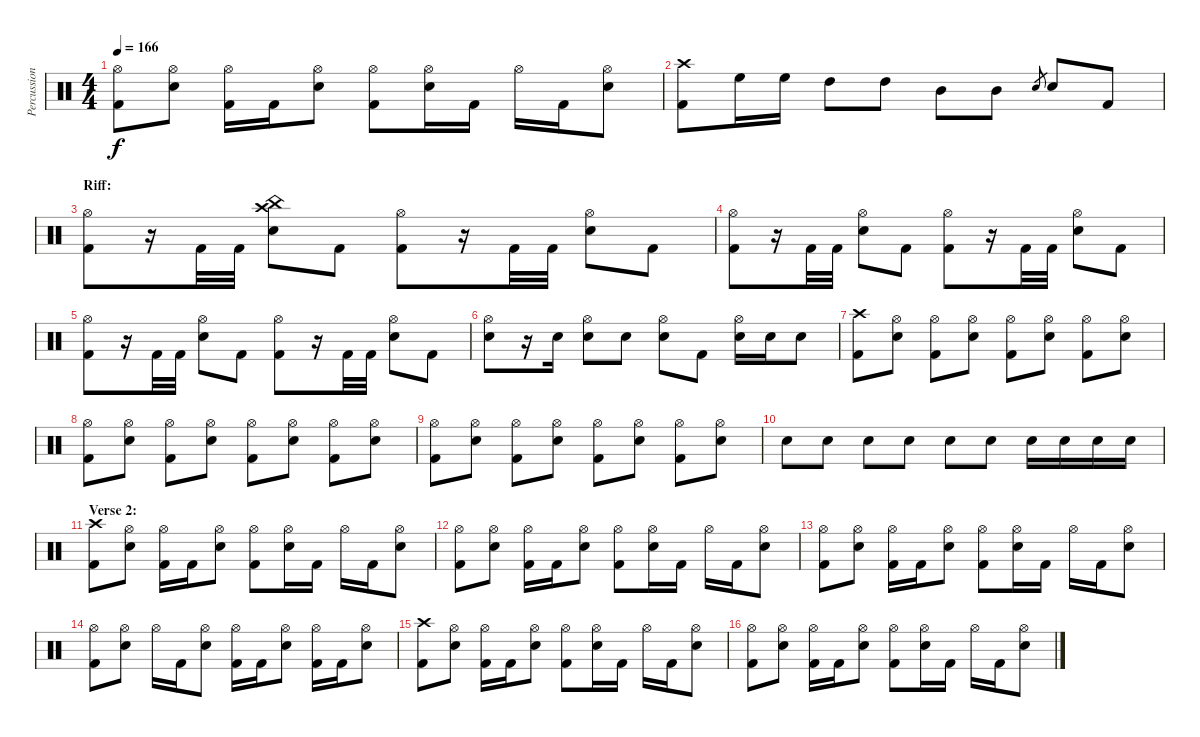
\track ("Percussion" "Percussion") {instrument percussion}
\staff {score}
\articulation defaults
\ts (4 4)
\tempo 166
\clef neutral
\ks c
("Hi-Hat (open)" "Kick (hit) 2").8{dy f} ("Hi-Hat (open)" "Electric Snare (hit)").8 ("Hi-Hat (open)" "Kick (hit) 2").16 "Kick (hit) 2".16 ("Hi-Hat (open)" "Electric Snare (hit)").8 ("Hi-Hat (open)" "Kick (hit) 2").8 ("Hi-Hat (open)" "Electric Snare (hit)").16 "Kick (hit) 2".16 "Hi-Hat (open)".16 "Kick (hit) 2".16 ("Hi-Hat (open)" "Electric Snare (hit)").8 |
("Crash high (hit)" "Kick (hit) 2").8 "High Floor Tom (hit)".16 "High Floor Tom (hit)".16 "High Tom (hit)".8 "High Tom (hit)".8 "Mid Tom (hit)".8 "Mid Tom (hit)".8 "Electric Snare (hit)".8{gr} "Electric Snare (hit)".8 "Kick (hit) 2".8 |
\section ("" "Riff:")
("Hi-Hat (open)" "Kick (hit) 2").8 r.16 "Kick (hit) 2".32 "Kick (hit) 2".32 ("China (hit)" "Crash high (hit)" "Electric Snare (hit)").8 "Kick (hit) 2".8 ("Hi-Hat (open)" "Kick (hit) 2").8 r.16 "Kick (hit) 2".32 "Kick (hit) 2".32 ("Hi-Hat (open)" "Electric Snare (hit)").8 "Kick (hit) 2".8 |
("Hi-Hat (open)" "Kick (hit) 2").8 r.16 "Kick (hit) 2".32 "Kick (hit) 2".32 ("Hi-Hat (open)" "Electric Snare (hit)").8 "Kick (hit) 2".8 ("Hi-Hat (open)" "Kick (hit) 2").8 r.16 "Kick (hit) 2".32 "Kick (hit) 2".32 ("Hi-Hat (open)" "Electric Snare (hit)").8 "Kick (hit) 2".8 |
("Hi-Hat (open)" "Kick (hit) 2").8 r.16 "Kick (hit) 2".32 "Kick (hit) 2".32 ("Hi-Hat (open)" "Electric Snare (hit)").8 "Kick (hit) 2".8 ("Hi-Hat (open)" "Kick (hit) 2").8 r.16 "Kick (hit) 2".32 "Kick (hit) 2".32 ("Hi-Hat (open)" "Electric Snare (hit)").8 "Kick (hit) 2".8 |
("Hi-Hat (open)" "Electric Snare (hit)").8 r.16 "Electric Snare (hit)".16 ("Hi-Hat (open)" "Electric Snare (hit)").8 "Electric Snare (hit)".8 ("Hi-Hat (open)" "Electric Snare (hit)").8 "Kick (hit) 2".8 ("Hi-Hat (open)" "Electric Snare (hit)").16 "Electric Snare (hit)".16 "Electric Snare (hit)".8 |
("Crash high (hit)" "Kick (hit) 2").8 ("Hi-Hat (open)" "Electric Snare (hit)").8 ("Hi-Hat (open)" "Kick (hit) 2").8 ("Hi-Hat (open)" "Electric Snare (hit)").8 ("Hi-Hat (open)" "Kick (hit) 2").8 ("Hi-Hat (open)" "Electric Snare (hit)").8 ("Hi-Hat (open)" "Kick (hit) 2").8 ("Hi-Hat (open)" "Electric Snare (hit)").8 |
("Hi-Hat (open)" "Kick (hit) 2").8 ("Hi-Hat (open)" "Electric Snare (hit)").8 ("Hi-Hat (open)" "Kick (hit) 2").8 ("Hi-Hat (open)" "Electric Snare (hit)").8 ("Hi-Hat (open)" "Kick (hit) 2").8 ("Hi-Hat (open)" "Electric Snare (hit)").8 ("Hi-Hat (open)" "Kick (hit) 2").8 ("Hi-Hat (open)" "Electric Snare (hit)").8 |
("Hi-Hat (open)" "Kick (hit) 2").8 ("Hi-Hat (open)" "Electric Snare (hit)").8 ("Hi-Hat (open)" "Kick (hit) 2").8 ("Hi-Hat (open)" "Electric Snare (hit)").8 ("Hi-Hat (open)" "Kick (hit) 2").8 ("Hi-Hat (open)" "Electric Snare (hit)").8 ("Hi-Hat (open)" "Kick (hit) 2").8 ("Hi-Hat (open)" "Electric Snare (hit)").8 |
"Electric Snare (hit)".8 "Electric Snare (hit)".8 "Electric Snare (hit)".8 "Electric Snare (hit)".8 "Electric Snare (hit)".8 "Electric Snare (hit)".8 "Electric Snare (hit)".16 "Electric Snare (hit)".16 "Electric Snare (hit)".16 "Electric Snare (hit)".16 |
\section ("" "Verse 2:")
("Crash high (hit)" "Kick (hit) 2").8 ("Hi-Hat (open)" "Electric Snare (hit)").8 ("Hi-Hat (open)" "Kick (hit) 2").16 "Kick (hit) 2".16 ("Hi-Hat (open)" "Electric Snare (hit)").8 ("Hi-Hat (open)" "Kick (hit) 2").8 ("Hi-Hat (open)" "Electric Snare (hit)").16 "Kick (hit) 2".16 "Hi-Hat (open)".16 "Kick (hit) 2".16 ("Hi-Hat (open)" "Electric Snare (hit)").8 |
("Hi-Hat (open)" "Kick (hit) 2").8 ("Hi-Hat (open)" "Electric Snare (hit)").8 ("Hi-Hat (open)" "Kick (hit) 2").16 "Kick (hit) 2".16 ("Hi-Hat (open)" "Electric Snare (hit)").8 ("Hi-Hat (open)" "Kick (hit) 2").8 ("Hi-Hat (open)" "Electric Snare (hit)").16 "Kick (hit) 2".16 "Hi-Hat (open)".16 "Kick (hit) 2".16 ("Hi-Hat (open)" "Electric Snare (hit)").8 |
("Hi-Hat (open)" "Kick (hit) 2").8 ("Hi-Hat (open)" "Electric Snare (hit)").8 ("Hi-Hat (open)" "Kick (hit) 2").16 "Kick (hit) 2".16 ("Hi-Hat (open)" "Electric Snare (hit)").8 ("Hi-Hat (open)" "Kick (hit) 2").8 ("Hi-Hat (open)" "Electric Snare (hit)").16 "Kick (hit) 2".16 "Hi-Hat (open)".16 "Kick (hit) 2".16 ("Hi-Hat (open)" "Electric Snare (hit)").8 |
("Hi-Hat (open)" "Kick (hit) 2").8 ("Hi-Hat (open)" "Electric Snare (hit)").8 "Hi-Hat (open)".16 "Kick (hit) 2".16 ("Hi-Hat (open)" "Electric Snare (hit)").8 ("Hi-Hat (open)" "Kick (hit) 2").16 "Kick (hit) 2".16 ("Hi-Hat (open)" "Electric Snare (hit)").8 ("Hi-Hat (open)" "Kick (hit) 2").16 "Kick (hit) 2".16 ("Hi-Hat (open)" "Electric Snare (hit)").8 |
("Crash high (hit)" "Kick (hit) 2").8 ("Hi-Hat (open)" "Electric Snare (hit)").8 ("Hi-Hat (open)" "Kick (hit) 2").16 "Kick (hit) 2".16 ("Hi-Hat (open)" "Electric Snare (hit)").8 ("Hi-Hat (open)" "Kick (hit) 2").8 ("Hi-Hat (open)" "Electric Snare (hit)").16 "Kick (hit) 2".16 "Hi-Hat (open)".16 "Kick (hit) 2".16 ("Hi-Hat (open)" "Electric Snare (hit)").8 |
("Hi-Hat (open)" "Kick (hit) 2").8 ("Hi-Hat (open)" "Electric Snare (hit)").8 ("Hi-Hat (open)" "Kick (hit) 2").16 "Kick (hit) 2".16 ("Hi-Hat (open)" "Electric Snare (hit)").8 ("Hi-Hat (open)" "Kick (hit) 2").8 ("Hi-Hat (open)" "Electric Snare (hit)").16 "Kick (hit) 2".16 "Hi-Hat (open)".16 "Kick (hit) 2".16 ("Hi-Hat (open)" "Electric Snare (hit)").8
